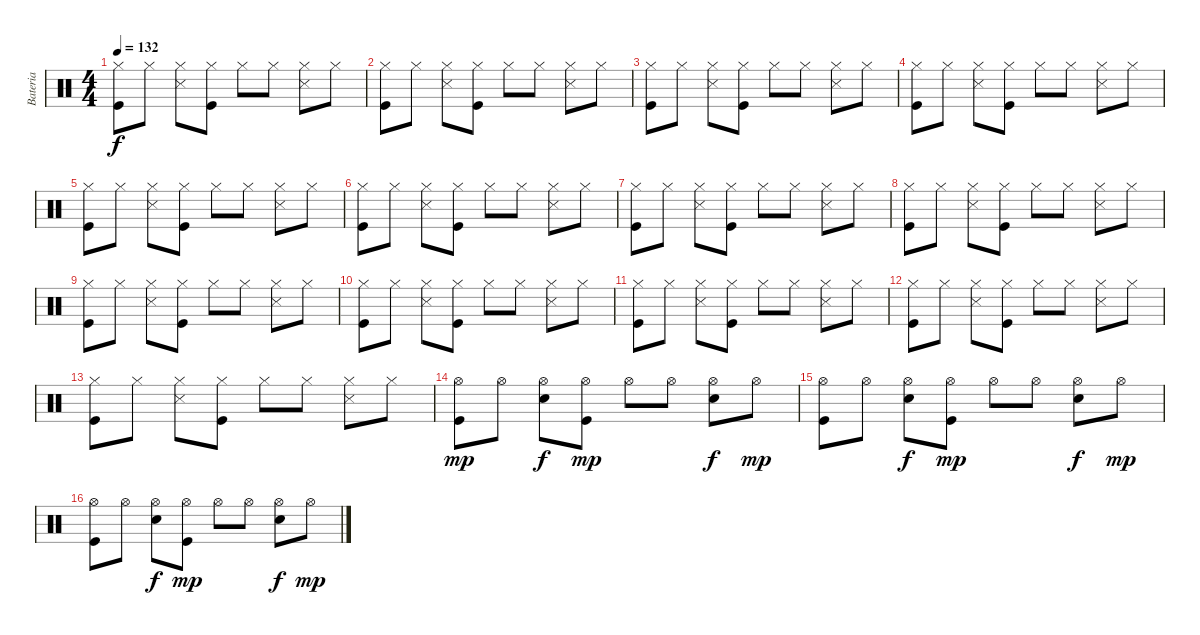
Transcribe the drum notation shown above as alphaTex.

\track ("Bateria" "Bateria") {instrument percussion}
\staff {score}
\articulation defaults
\ts (4 4)
\tempo 132
\clef neutral
\ks c
("Hi-Hat (closed)" "Kick (hit)").8{dy f} "Hi-Hat (closed)".8 ("Hi-Hat (closed)" "Snare (side stick) 3").8 ("Hi-Hat (closed)" "Kick (hit)").8 "Hi-Hat (closed)".8 "Hi-Hat (closed)".8 ("Hi-Hat (closed)" "Snare (side stick) 3").8 "Hi-Hat (closed)".8 |
("Hi-Hat (closed)" "Kick (hit)").8 "Hi-Hat (closed)".8 ("Hi-Hat (closed)" "Snare (side stick) 3").8 ("Hi-Hat (closed)" "Kick (hit)").8 "Hi-Hat (closed)".8 "Hi-Hat (closed)".8 ("Hi-Hat (closed)" "Snare (side stick) 3").8 "Hi-Hat (closed)".8 |
("Hi-Hat (closed)" "Kick (hit)").8 "Hi-Hat (closed)".8 ("Hi-Hat (closed)" "Snare (side stick) 3").8 ("Hi-Hat (closed)" "Kick (hit)").8 "Hi-Hat (closed)".8 "Hi-Hat (closed)".8 ("Hi-Hat (closed)" "Snare (side stick) 3").8 "Hi-Hat (closed)".8 |
("Hi-Hat (closed)" "Kick (hit)").8 "Hi-Hat (closed)".8 ("Hi-Hat (closed)" "Snare (side stick) 3").8 ("Hi-Hat (closed)" "Kick (hit)").8 "Hi-Hat (closed)".8 "Hi-Hat (closed)".8 ("Hi-Hat (closed)" "Snare (side stick) 3").8 "Hi-Hat (closed)".8 |
("Hi-Hat (closed)" "Kick (hit)").8 "Hi-Hat (closed)".8 ("Hi-Hat (closed)" "Snare (side stick) 3").8 ("Hi-Hat (closed)" "Kick (hit)").8 "Hi-Hat (closed)".8 "Hi-Hat (closed)".8 ("Hi-Hat (closed)" "Snare (side stick) 3").8 "Hi-Hat (closed)".8 |
("Hi-Hat (closed)" "Kick (hit)").8 "Hi-Hat (closed)".8 ("Hi-Hat (closed)" "Snare (side stick) 3").8 ("Hi-Hat (closed)" "Kick (hit)").8 "Hi-Hat (closed)".8 "Hi-Hat (closed)".8 ("Hi-Hat (closed)" "Snare (side stick) 3").8 "Hi-Hat (closed)".8 |
("Hi-Hat (closed)" "Kick (hit)").8 "Hi-Hat (closed)".8 ("Hi-Hat (closed)" "Snare (side stick) 3").8 ("Hi-Hat (closed)" "Kick (hit)").8 "Hi-Hat (closed)".8 "Hi-Hat (closed)".8 ("Hi-Hat (closed)" "Snare (side stick) 3").8 "Hi-Hat (closed)".8 |
("Hi-Hat (closed)" "Kick (hit)").8 "Hi-Hat (closed)".8 ("Hi-Hat (closed)" "Snare (side stick) 3").8 ("Hi-Hat (closed)" "Kick (hit)").8 "Hi-Hat (closed)".8 "Hi-Hat (closed)".8 ("Hi-Hat (closed)" "Snare (side stick) 3").8 "Hi-Hat (closed)".8 |
("Hi-Hat (closed)" "Kick (hit)").8 "Hi-Hat (closed)".8 ("Hi-Hat (closed)" "Snare (side stick) 3").8 ("Hi-Hat (closed)" "Kick (hit)").8 "Hi-Hat (closed)".8 "Hi-Hat (closed)".8 ("Hi-Hat (closed)" "Snare (side stick) 3").8 "Hi-Hat (closed)".8 |
("Hi-Hat (closed)" "Kick (hit)").8 "Hi-Hat (closed)".8 ("Hi-Hat (closed)" "Snare (side stick) 3").8 ("Hi-Hat (closed)" "Kick (hit)").8 "Hi-Hat (closed)".8 "Hi-Hat (closed)".8 ("Hi-Hat (closed)" "Snare (side stick) 3").8 "Hi-Hat (closed)".8 |
("Hi-Hat (closed)" "Kick (hit)").8 "Hi-Hat (closed)".8 ("Hi-Hat (closed)" "Snare (side stick) 3").8 ("Hi-Hat (closed)" "Kick (hit)").8 "Hi-Hat (closed)".8 "Hi-Hat (closed)".8 ("Hi-Hat (closed)" "Snare (side stick) 3").8 "Hi-Hat (closed)".8 |
("Hi-Hat (closed)" "Kick (hit)").8 "Hi-Hat (closed)".8 ("Hi-Hat (closed)" "Snare (side stick) 3").8 ("Hi-Hat (closed)" "Kick (hit)").8 "Hi-Hat (closed)".8 "Hi-Hat (closed)".8 ("Hi-Hat (closed)" "Snare (side stick) 3").8 "Hi-Hat (closed)".8 |
("Hi-Hat (closed)" "Kick (hit)").8 "Hi-Hat (closed)".8 ("Hi-Hat (closed)" "Snare (side stick) 3").8 ("Hi-Hat (closed)" "Kick (hit)").8 "Hi-Hat (closed)".8 "Hi-Hat (closed)".8 ("Hi-Hat (closed)" "Snare (side stick) 3").8 "Hi-Hat (closed)".8 |
("Hi-Hat (open)" "Kick (hit)").8{dy mp} "Hi-Hat (open)".8 ("Hi-Hat (open)" "Electric Snare (hit)").8{dy f} ("Hi-Hat (open)" "Kick (hit)").8{dy mp} "Hi-Hat (open)".8 "Hi-Hat (open)".8 ("Hi-Hat (open)" "Electric Snare (hit)").8{dy f} "Hi-Hat (open)".8{dy mp} |
("Hi-Hat (open)" "Kick (hit)").8 "Hi-Hat (open)".8 ("Hi-Hat (open)" "Electric Snare (hit)").8{dy f} ("Hi-Hat (open)" "Kick (hit)").8{dy mp} "Hi-Hat (open)".8 "Hi-Hat (open)".8 ("Hi-Hat (open)" "Electric Snare (hit)").8{dy f} "Hi-Hat (open)".8{dy mp} |
("Hi-Hat (open)" "Kick (hit)").8 "Hi-Hat (open)".8 ("Hi-Hat (open)" "Electric Snare (hit)").8{dy f} ("Hi-Hat (open)" "Kick (hit)").8{dy mp} "Hi-Hat (open)".8 "Hi-Hat (open)".8 ("Hi-Hat (open)" "Electric Snare (hit)").8{dy f} "Hi-Hat (open)".8{dy mp}
